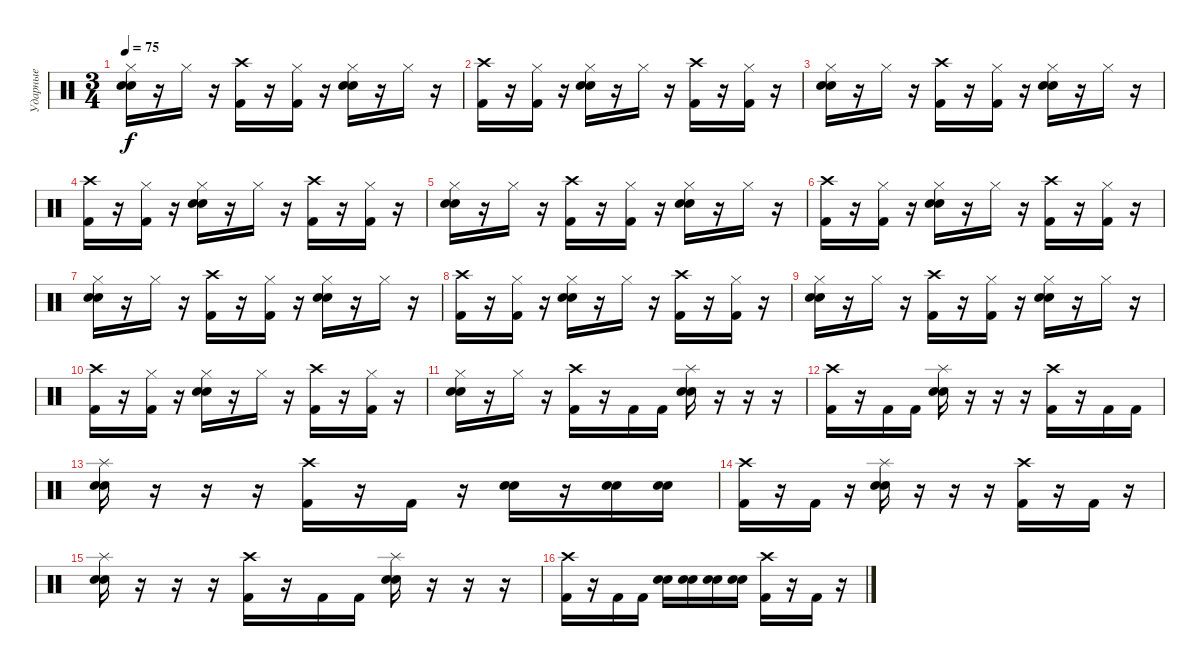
\track ("Ударные" "Ударные") {instrument percussion}
\staff {score}
\articulation defaults
\ts (3 4)
\tempo 75
\clef neutral
\ks c
("Hi-Hat (closed)" "Electric Snare (hit)" "Snare (hit) 2").16{dy f} r.16 "Hi-Hat (closed)".16 r.16 ("Crash high (hit)" "Kick (hit) 2").16 r.16 ("Hi-Hat (closed)" "Kick (hit) 2").16 r.16 ("Hi-Hat (closed)" "Electric Snare (hit)" "Snare (hit) 2").16 r.16 "Hi-Hat (closed)".16 r.16 |
("Crash high (hit)" "Kick (hit) 2").16 r.16 ("Hi-Hat (closed)" "Kick (hit) 2").16 r.16 ("Hi-Hat (closed)" "Electric Snare (hit)" "Snare (hit) 2").16 r.16 "Hi-Hat (closed)".16 r.16 ("Crash high (hit)" "Kick (hit) 2").16 r.16 ("Hi-Hat (closed)" "Kick (hit) 2").16 r.16 |
("Hi-Hat (closed)" "Electric Snare (hit)" "Snare (hit) 2").16 r.16 "Hi-Hat (closed)".16 r.16 ("Crash high (hit)" "Kick (hit) 2").16 r.16 ("Hi-Hat (closed)" "Kick (hit) 2").16 r.16 ("Hi-Hat (closed)" "Electric Snare (hit)" "Snare (hit) 2").16 r.16 "Hi-Hat (closed)".16 r.16 |
("Crash high (hit)" "Kick (hit) 2").16 r.16 ("Hi-Hat (closed)" "Kick (hit) 2").16 r.16 ("Hi-Hat (closed)" "Electric Snare (hit)" "Snare (hit) 2").16 r.16 "Hi-Hat (closed)".16 r.16 ("Crash high (hit)" "Kick (hit) 2").16 r.16 ("Hi-Hat (closed)" "Kick (hit) 2").16 r.16 |
("Hi-Hat (closed)" "Electric Snare (hit)" "Snare (hit) 2").16 r.16 "Hi-Hat (closed)".16 r.16 ("Crash high (hit)" "Kick (hit) 2").16 r.16 ("Hi-Hat (closed)" "Kick (hit) 2").16 r.16 ("Hi-Hat (closed)" "Electric Snare (hit)" "Snare (hit) 2").16 r.16 "Hi-Hat (closed)".16 r.16 |
("Crash high (hit)" "Kick (hit) 2").16 r.16 ("Hi-Hat (closed)" "Kick (hit) 2").16 r.16 ("Hi-Hat (closed)" "Electric Snare (hit)" "Snare (hit) 2").16 r.16 "Hi-Hat (closed)".16 r.16 ("Crash high (hit)" "Kick (hit) 2").16 r.16 ("Hi-Hat (closed)" "Kick (hit) 2").16 r.16 |
("Hi-Hat (closed)" "Electric Snare (hit)" "Snare (hit) 2").16 r.16 "Hi-Hat (closed)".16 r.16 ("Crash high (hit)" "Kick (hit) 2").16 r.16 ("Hi-Hat (closed)" "Kick (hit) 2").16 r.16 ("Hi-Hat (closed)" "Electric Snare (hit)" "Snare (hit) 2").16 r.16 "Hi-Hat (closed)".16 r.16 |
("Crash high (hit)" "Kick (hit) 2").16 r.16 ("Hi-Hat (closed)" "Kick (hit) 2").16 r.16 ("Hi-Hat (closed)" "Electric Snare (hit)" "Snare (hit) 2").16 r.16 "Hi-Hat (closed)".16 r.16 ("Crash high (hit)" "Kick (hit) 2").16 r.16 ("Hi-Hat (closed)" "Kick (hit) 2").16 r.16 |
("Hi-Hat (closed)" "Electric Snare (hit)" "Snare (hit) 2").16 r.16 "Hi-Hat (closed)".16 r.16 ("Crash high (hit)" "Kick (hit) 2").16 r.16 ("Hi-Hat (closed)" "Kick (hit) 2").16 r.16 ("Hi-Hat (closed)" "Electric Snare (hit)" "Snare (hit) 2").16 r.16 "Hi-Hat (closed)".16 r.16 |
("Crash high (hit)" "Kick (hit) 2").16 r.16 ("Hi-Hat (closed)" "Kick (hit) 2").16 r.16 ("Hi-Hat (closed)" "Electric Snare (hit)" "Snare (hit) 2").16 r.16 "Hi-Hat (closed)".16 r.16 ("Crash high (hit)" "Kick (hit) 2").16 r.16 ("Hi-Hat (closed)" "Kick (hit) 2").16 r.16 |
("Hi-Hat (closed)" "Electric Snare (hit)" "Snare (hit) 2").16 r.16 "Hi-Hat (closed)".16 r.16 ("Crash high (hit)" "Kick (hit) 2").16 r.16 "Kick (hit) 2".16 "Kick (hit) 2".16 ("Splash (hit)" "Electric Snare (hit)" "Snare (hit) 2").16 r.16 r.16 r.16 |
("Crash high (hit)" "Kick (hit) 2").16 r.16 "Kick (hit) 2".16 "Kick (hit) 2".16 ("Splash (hit)" "Electric Snare (hit)" "Snare (hit) 2").16 r.16 r.16 r.16 ("Crash high (hit)" "Kick (hit) 2").16 r.16 "Kick (hit) 2".16 "Kick (hit) 2".16 |
("Splash (hit)" "Electric Snare (hit)" "Snare (hit) 2").16 r.16 r.16 r.16 ("Crash high (hit)" "Kick (hit) 2").16 r.16 "Kick (hit) 2".16 r.16 ("Electric Snare (hit)" "Snare (hit) 2").16 r.16 ("Electric Snare (hit)" "Snare (hit) 2").16 ("Electric Snare (hit)" "Snare (hit) 2").16 |
("Crash high (hit)" "Kick (hit) 2").16 r.16 "Kick (hit) 2".16 r.16 ("Splash (hit)" "Electric Snare (hit)" "Snare (hit) 2").16 r.16 r.16 r.16 ("Crash high (hit)" "Kick (hit) 2").16 r.16 "Kick (hit) 2".16 r.16 |
("Splash (hit)" "Electric Snare (hit)" "Snare (hit) 2").16 r.16 r.16 r.16 ("Crash high (hit)" "Kick (hit) 2").16 r.16 "Kick (hit) 2".16 "Kick (hit) 2".16 ("Splash (hit)" "Electric Snare (hit)" "Snare (hit) 2").16 r.16 r.16 r.16 |
("Crash high (hit)" "Kick (hit) 2").16 r.16 "Kick (hit) 2".16 "Kick (hit) 2".16 ("Electric Snare (hit)" "Snare (hit) 2").16 ("Electric Snare (hit)" "Snare (hit) 2").16 ("Electric Snare (hit)" "Snare (hit) 2").16 ("Electric Snare (hit)" "Snare (hit) 2").16 ("Crash high (hit)" "Kick (hit) 2").16 r.16 "Kick (hit) 2".16 r.16
